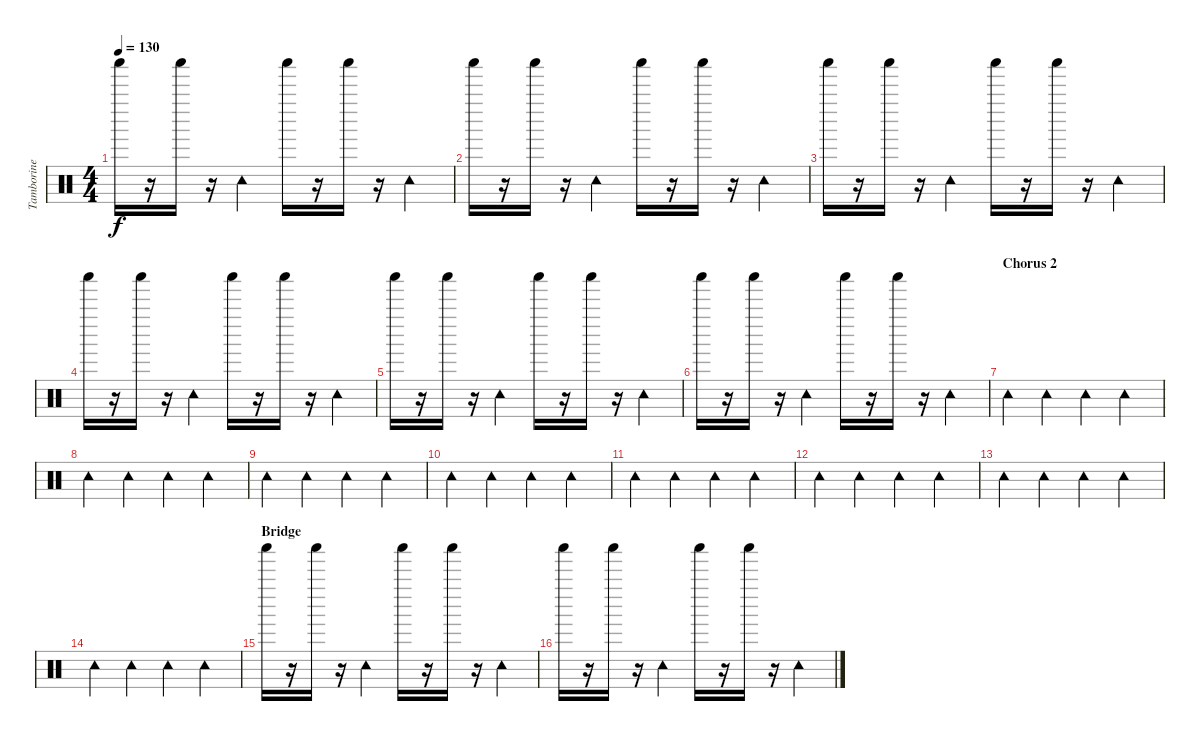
\track ("Tamborine" "Tamborine") {instrument percussion}
\staff {score}
\articulation defaults
\ts (4 4)
\tempo 130
\clef neutral
\ks c "Shaker (hit)".16{dy f}
r.16 "Shaker (hit)".16 r.16 "Tambourine (hit)".4 "Shaker (hit)".16 r.16 "Shaker (hit)".16 r.16 "Tambourine (hit)".4 |
"Shaker (hit)".16 r.16 "Shaker (hit)".16 r.16 "Tambourine (hit)".4 "Shaker (hit)".16 r.16 "Shaker (hit)".16 r.16 "Tambourine (hit)".4 |
"Shaker (hit)".16 r.16 "Shaker (hit)".16 r.16 "Tambourine (hit)".4 "Shaker (hit)".16 r.16 "Shaker (hit)".16 r.16 "Tambourine (hit)".4 |
"Shaker (hit)".16 r.16 "Shaker (hit)".16 r.16 "Tambourine (hit)".4 "Shaker (hit)".16 r.16 "Shaker (hit)".16 r.16 "Tambourine (hit)".4 |
"Shaker (hit)".16 r.16 "Shaker (hit)".16 r.16 "Tambourine (hit)".4 "Shaker (hit)".16 r.16 "Shaker (hit)".16 r.16 "Tambourine (hit)".4 |
"Shaker (hit)".16 r.16 "Shaker (hit)".16 r.16 "Tambourine (hit)".4 "Shaker (hit)".16 r.16 "Shaker (hit)".16 r.16 "Tambourine (hit)".4 |
\section ("" "Chorus 2")
"Tambourine (hit)".4 "Tambourine (hit)".4 "Tambourine (hit)".4 "Tambourine (hit)".4 |
"Tambourine (hit)".4 "Tambourine (hit)".4 "Tambourine (hit)".4 "Tambourine (hit)".4 |
"Tambourine (hit)".4 "Tambourine (hit)".4 "Tambourine (hit)".4 "Tambourine (hit)".4 |
"Tambourine (hit)".4 "Tambourine (hit)".4 "Tambourine (hit)".4 "Tambourine (hit)".4 |
"Tambourine (hit)".4 "Tambourine (hit)".4 "Tambourine (hit)".4 "Tambourine (hit)".4 |
"Tambourine (hit)".4 "Tambourine (hit)".4 "Tambourine (hit)".4 "Tambourine (hit)".4 |
"Tambourine (hit)".4 "Tambourine (hit)".4 "Tambourine (hit)".4 "Tambourine (hit)".4 |
"Tambourine (hit)".4 "Tambourine (hit)".4 "Tambourine (hit)".4 "Tambourine (hit)".4 |
\section ("" "Bridge")
"Shaker (hit)".16 r.16 "Shaker (hit)".16 r.16 "Tambourine (hit)".4 "Shaker (hit)".16 r.16 "Shaker (hit)".16 r.16 "Tambourine (hit)".4 |
"Shaker (hit)".16 r.16 "Shaker (hit)".16 r.16 "Tambourine (hit)".4 "Shaker (hit)".16 r.16 "Shaker (hit)".16 r.16 "Tambourine (hit)".4
